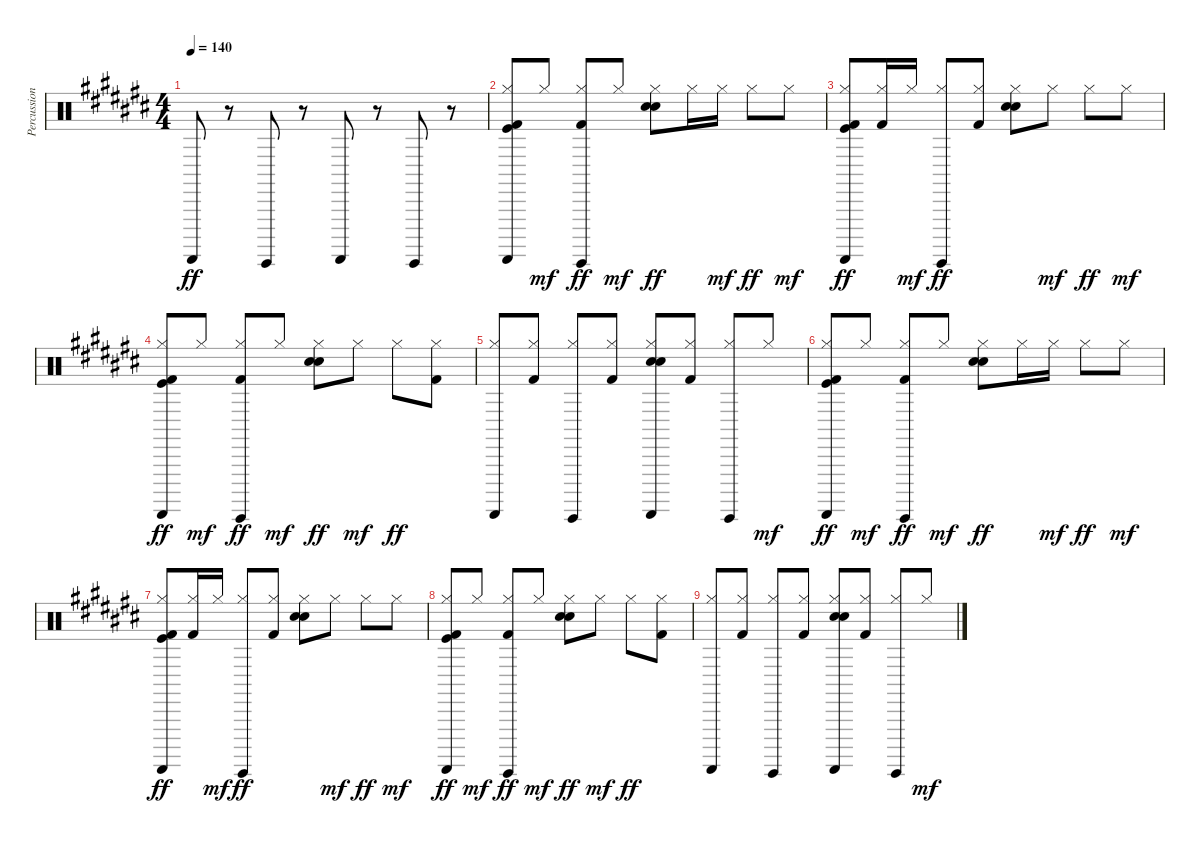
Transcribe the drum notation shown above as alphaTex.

\track ("Percussion" "Percussion") {instrument percussion}
\staff {score}
\articulation defaults
\ts (4 4)
\tempo 140
\clef neutral
\ks c# "Guiro (scrap-return)".8{dy ff}
r.8 "Guiro (hit)".8 r.8 "Guiro (scrap-return)".8 r.8 "Guiro (hit)".8 r.8 |
("Guiro (scrap-return)" "Hi-Hat (closed)" "Kick (hit)" "Kick (hit) 2").8 "Hi-Hat (closed)".8{dy mf} ("Guiro (hit)" "Hi-Hat (closed)" "Kick (hit) 2").8{dy ff} "Hi-Hat (closed)".8{dy mf} ("Hi-Hat (closed)" "Electric Snare (hit)" "Snare (hit) 2").8{dy ff} "Hi-Hat (closed)".16 "Hi-Hat (closed)".16{dy mf} "Hi-Hat (closed)".8{dy ff} "Hi-Hat (closed)".8{dy mf} |
("Guiro (scrap-return)" "Hi-Hat (closed)" "Kick (hit)" "Kick (hit) 2").8{dy ff} ("Hi-Hat (closed)" "Kick (hit) 2").16 "Hi-Hat (closed)".16{dy mf} ("Guiro (hit)" "Hi-Hat (closed)").8{dy ff} ("Hi-Hat (closed)" "Kick (hit) 2").8 ("Hi-Hat (closed)" "Electric Snare (hit)" "Snare (hit) 2").8 "Hi-Hat (closed)".8{dy mf} "Hi-Hat (closed)".8{dy ff} "Hi-Hat (closed)".8{dy mf} |
("Guiro (scrap-return)" "Hi-Hat (closed)" "Kick (hit)" "Kick (hit) 2").8{dy ff} "Hi-Hat (closed)".8{dy mf} ("Guiro (hit)" "Hi-Hat (closed)" "Kick (hit) 2").8{dy ff} "Hi-Hat (closed)".8{dy mf} ("Hi-Hat (closed)" "Electric Snare (hit)" "Snare (hit) 2").8{dy ff} "Hi-Hat (closed)".8{dy mf} "Hi-Hat (closed)".8{dy ff} ("Hi-Hat (closed)" "Kick (hit) 2").8 |
("Guiro (scrap-return)" "Hi-Hat (closed)").8 ("Hi-Hat (closed)" "Kick (hit) 2").8 ("Guiro (hit)" "Hi-Hat (closed)").8 ("Hi-Hat (closed)" "Kick (hit) 2").8 ("Guiro (scrap-return)" "Hi-Hat (closed)" "Electric Snare (hit)" "Snare (hit) 2").8 ("Hi-Hat (closed)" "Kick (hit) 2").8 ("Guiro (hit)" "Hi-Hat (closed)").8 "Hi-Hat (closed)".8{dy mf} |
("Guiro (scrap-return)" "Hi-Hat (closed)" "Kick (hit)" "Kick (hit) 2").8{dy ff} "Hi-Hat (closed)".8{dy mf} ("Guiro (hit)" "Hi-Hat (closed)" "Kick (hit) 2").8{dy ff} "Hi-Hat (closed)".8{dy mf} ("Hi-Hat (closed)" "Electric Snare (hit)" "Snare (hit) 2").8{dy ff} "Hi-Hat (closed)".16 "Hi-Hat (closed)".16{dy mf} "Hi-Hat (closed)".8{dy ff} "Hi-Hat (closed)".8{dy mf} |
("Guiro (scrap-return)" "Hi-Hat (closed)" "Kick (hit)" "Kick (hit) 2").8{dy ff} ("Hi-Hat (closed)" "Kick (hit) 2").16 "Hi-Hat (closed)".16{dy mf} ("Guiro (hit)" "Hi-Hat (closed)").8{dy ff} ("Hi-Hat (closed)" "Kick (hit) 2").8 ("Hi-Hat (closed)" "Electric Snare (hit)" "Snare (hit) 2").8 "Hi-Hat (closed)".8{dy mf} "Hi-Hat (closed)".8{dy ff} "Hi-Hat (closed)".8{dy mf} |
("Guiro (scrap-return)" "Hi-Hat (closed)" "Kick (hit)" "Kick (hit) 2").8{dy ff} "Hi-Hat (closed)".8{dy mf} ("Guiro (hit)" "Hi-Hat (closed)" "Kick (hit) 2").8{dy ff} "Hi-Hat (closed)".8{dy mf} ("Hi-Hat (closed)" "Electric Snare (hit)" "Snare (hit) 2").8{dy ff} "Hi-Hat (closed)".8{dy mf} "Hi-Hat (closed)".8{dy ff} ("Hi-Hat (closed)" "Kick (hit) 2").8 |
("Guiro (scrap-return)" "Hi-Hat (closed)").8 ("Hi-Hat (closed)" "Kick (hit) 2").8 ("Guiro (hit)" "Hi-Hat (closed)").8 ("Hi-Hat (closed)" "Kick (hit) 2").8 ("Guiro (scrap-return)" "Hi-Hat (closed)" "Electric Snare (hit)" "Snare (hit) 2").8 ("Hi-Hat (closed)" "Kick (hit) 2").8 ("Guiro (hit)" "Hi-Hat (closed)").8 "Hi-Hat (closed)".8{dy mf}
